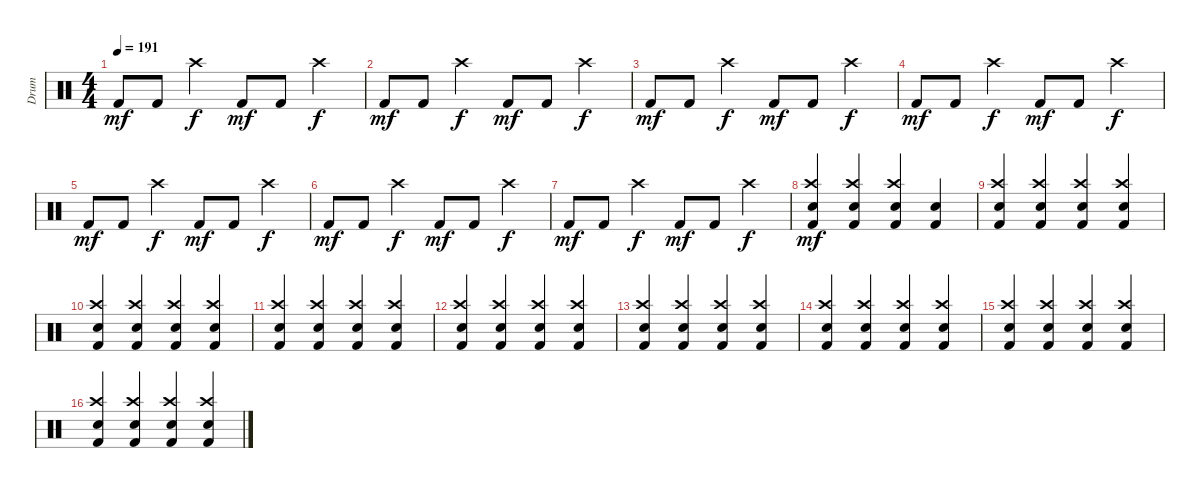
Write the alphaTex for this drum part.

\track ("Drum" "Drum") {instrument percussion}
\staff {score}
\articulation defaults
\ts (4 4)
\tempo 191
\clef neutral
\ks c "Kick (hit) 2".8{dy mf} "Kick (hit) 2".8 "Crash high (hit)".4{dy f} "Kick (hit) 2".8{dy mf} "Kick (hit) 2".8 "Crash high (hit)".4{dy f}
|
"Kick (hit) 2".8{dy mf} "Kick (hit) 2".8 "Crash high (hit)".4{dy f} "Kick (hit) 2".8{dy mf} "Kick (hit) 2".8 "Crash high (hit)".4{dy f} |
"Kick (hit) 2".8{dy mf} "Kick (hit) 2".8 "Crash high (hit)".4{dy f} "Kick (hit) 2".8{dy mf} "Kick (hit) 2".8 "Crash high (hit)".4{dy f} |
"Kick (hit) 2".8{dy mf} "Kick (hit) 2".8 "Crash high (hit)".4{dy f} "Kick (hit) 2".8{dy mf} "Kick (hit) 2".8 "Crash high (hit)".4{dy f} |
"Kick (hit) 2".8{dy mf} "Kick (hit) 2".8 "Crash high (hit)".4{dy f} "Kick (hit) 2".8{dy mf} "Kick (hit) 2".8 "Crash high (hit)".4{dy f} |
"Kick (hit) 2".8{dy mf} "Kick (hit) 2".8 "Crash high (hit)".4{dy f} "Kick (hit) 2".8{dy mf} "Kick (hit) 2".8 "Crash high (hit)".4{dy f} |
"Kick (hit) 2".8{dy mf} "Kick (hit) 2".8 "Crash high (hit)".4{dy f} "Kick (hit) 2".8{dy mf} "Kick (hit) 2".8 "Crash high (hit)".4{dy f} |
("Kick (hit) 2" "Snare (hit) 2" "Crash high (hit)").4{dy mf} ("Kick (hit) 2" "Snare (hit) 2" "Crash high (hit)").4 ("Kick (hit) 2" "Snare (hit) 2" "Crash high (hit)").4 ("Kick (hit) 2" "Snare (hit) 2").4 |
("Kick (hit) 2" "Snare (hit) 2" "Crash high (hit)").4 ("Kick (hit) 2" "Snare (hit) 2" "Crash high (hit)").4 ("Kick (hit) 2" "Snare (hit) 2" "Crash high (hit)").4 ("Kick (hit) 2" "Snare (hit) 2" "Crash high (hit)").4 |
("Kick (hit) 2" "Snare (hit) 2" "Crash high (hit)").4 ("Kick (hit) 2" "Snare (hit) 2" "Crash high (hit)").4 ("Kick (hit) 2" "Snare (hit) 2" "Crash high (hit)").4 ("Kick (hit) 2" "Snare (hit) 2" "Crash high (hit)").4 |
("Kick (hit) 2" "Snare (hit) 2" "Crash high (hit)").4 ("Kick (hit) 2" "Snare (hit) 2" "Crash high (hit)").4 ("Kick (hit) 2" "Snare (hit) 2" "Crash high (hit)").4 ("Kick (hit) 2" "Snare (hit) 2" "Crash high (hit)").4 |
("Kick (hit) 2" "Snare (hit) 2" "Crash high (hit)").4 ("Kick (hit) 2" "Snare (hit) 2" "Crash high (hit)").4 ("Kick (hit) 2" "Snare (hit) 2" "Crash high (hit)").4 ("Kick (hit) 2" "Snare (hit) 2" "Crash high (hit)").4 |
("Kick (hit) 2" "Snare (hit) 2" "Crash high (hit)").4 ("Kick (hit) 2" "Snare (hit) 2" "Crash high (hit)").4 ("Kick (hit) 2" "Snare (hit) 2" "Crash high (hit)").4 ("Kick (hit) 2" "Snare (hit) 2" "Crash high (hit)").4 |
("Kick (hit) 2" "Snare (hit) 2" "Crash high (hit)").4 ("Kick (hit) 2" "Snare (hit) 2" "Crash high (hit)").4 ("Kick (hit) 2" "Snare (hit) 2" "Crash high (hit)").4 ("Kick (hit) 2" "Snare (hit) 2" "Crash high (hit)").4 |
("Kick (hit) 2" "Snare (hit) 2" "Crash high (hit)").4 ("Kick (hit) 2" "Snare (hit) 2" "Crash high (hit)").4 ("Kick (hit) 2" "Snare (hit) 2" "Crash high (hit)").4 ("Kick (hit) 2" "Snare (hit) 2" "Crash high (hit)").4 |
("Kick (hit) 2" "Snare (hit) 2" "Crash high (hit)").4 ("Kick (hit) 2" "Snare (hit) 2" "Crash high (hit)").4 ("Kick (hit) 2" "Snare (hit) 2" "Crash high (hit)").4 ("Kick (hit) 2" "Snare (hit) 2" "Crash high (hit)").4
